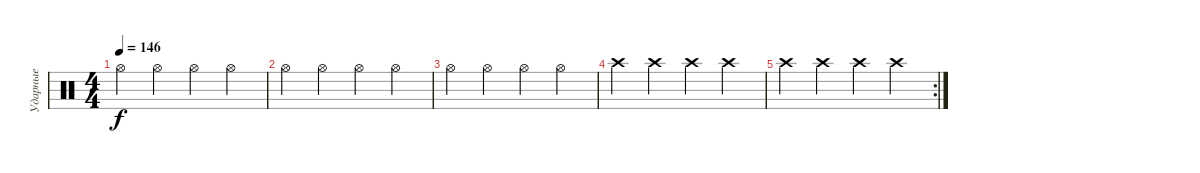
\track ("Ударные" "Ударные") {instrument percussion}
\staff {score}
\articulation defaults
\ts (4 4)
\tempo 146
\clef neutral
\ks c "Hi-Hat (open)".4{dy f} "Hi-Hat (open)".4 "Hi-Hat (open)".4 "Hi-Hat (open)".4
|
"Hi-Hat (open)".4 "Hi-Hat (open)".4 "Hi-Hat (open)".4 "Hi-Hat (open)".4 |
"Hi-Hat (open)".4 "Hi-Hat (open)".4 "Hi-Hat (open)".4 "Hi-Hat (open)".4 |
"Crash high (hit)".4 "Crash high (hit)".4 "Crash high (hit)".4 "Crash high (hit)".4 |
\rc 2 "Crash high (hit)".4 "Crash high (hit)".4 "Crash high (hit)".4 "Crash high (hit)".4
